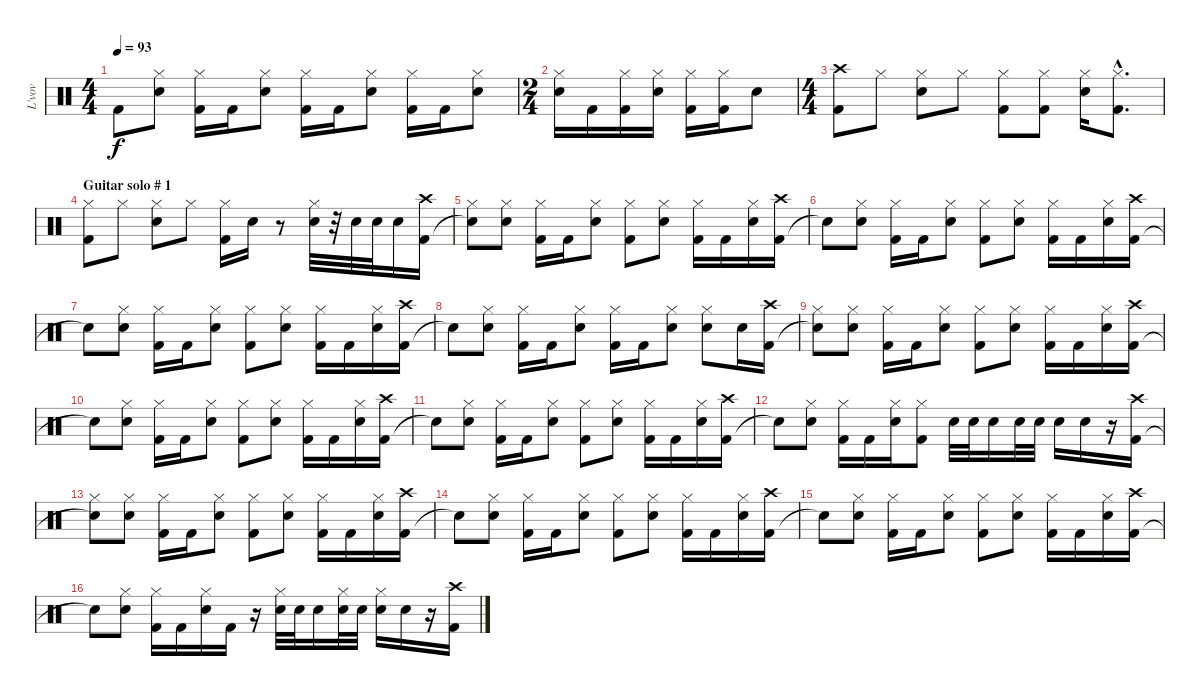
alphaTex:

\track ("L'vov" "L'vov") {instrument percussion}
\staff {score}
\articulation defaults
\ts (4 4)
\tempo 93
\clef neutral
\ks c "Kick (hit) 2".8{dy f}
("Snare (hit) 2" "Hi-Hat (closed)").8 ("Kick (hit) 2" "Hi-Hat (closed)").16 "Kick (hit) 2".16 ("Snare (hit) 2" "Hi-Hat (closed)").8 ("Kick (hit) 2" "Hi-Hat (closed)").16 "Kick (hit) 2".16 ("Snare (hit) 2" "Hi-Hat (closed)").8 ("Kick (hit) 2" "Hi-Hat (closed)").16 "Kick (hit) 2".16 ("Snare (hit) 2" "Hi-Hat (closed)").8 |
\ts (2 4)
("Snare (hit) 2" "Hi-Hat (closed)").16 "Kick (hit) 2".16 ("Kick (hit) 2" "Hi-Hat (closed)").16 ("Snare (hit) 2" "Hi-Hat (closed)").16 ("Kick (hit) 2" "Hi-Hat (closed)").16 ("Kick (hit) 2" "Hi-Hat (closed)").16 "Snare (hit) 2".8 |
\ts (4 4)
("Kick (hit) 2" "Crash high (hit)").8 "Hi-Hat (closed)".8 ("Snare (hit) 2" "Hi-Hat (closed)").8 "Hi-Hat (closed)".8 ("Kick (hit) 2" "Hi-Hat (closed)").8 ("Kick (hit) 2" "Hi-Hat (closed)").8 ("Snare (hit) 2" "Hi-Hat (closed)").16 ("Kick (hit) 2"{hac} "Hi-Hat (closed)"{hac}).8{d} |
\section ("" "Guitar solo # 1")
("Kick (hit) 2" "Hi-Hat (closed)").8 "Hi-Hat (closed)".8 ("Snare (hit) 2" "Hi-Hat (closed)").8 "Hi-Hat (closed)".8 ("Kick (hit) 2" "Hi-Hat (closed)").16 "Snare (hit) 2".16 r.8 ("Snare (hit) 2" "Hi-Hat (closed)").32 r.32 "Snare (hit) 2".32 "Snare (hit) 2".32 "Snare (hit) 2".16 ("Kick (hit) 2" "Crash high (hit)").16 |
("Snare (hit)"{t} "Hi-Hat (closed)").8 ("Snare (hit) 2" "Hi-Hat (closed)").8 ("Kick (hit) 2" "Hi-Hat (closed)").16 "Kick (hit) 2".16 ("Snare (hit) 2" "Hi-Hat (closed)").8 ("Kick (hit) 2" "Hi-Hat (closed)").8 ("Snare (hit) 2" "Hi-Hat (closed)").8 ("Kick (hit) 2" "Hi-Hat (closed)").16 "Kick (hit) 2".16 ("Snare (hit) 2" "Hi-Hat (closed)").16 ("Kick (hit) 2" "Crash high (hit)").16 |
"Snare (hit)"{t}.8 ("Snare (hit) 2" "Hi-Hat (closed)").8 ("Kick (hit) 2" "Hi-Hat (closed)").16 "Kick (hit) 2".16 ("Snare (hit) 2" "Hi-Hat (closed)").8 ("Kick (hit) 2" "Hi-Hat (closed)").8 ("Snare (hit) 2" "Hi-Hat (closed)").8 ("Kick (hit) 2" "Hi-Hat (closed)").16 "Kick (hit) 2".16 ("Snare (hit) 2" "Hi-Hat (closed)").16 ("Kick (hit) 2" "Crash high (hit)").16 |
"Snare (hit)"{t}.8 ("Snare (hit) 2" "Hi-Hat (closed)").8 ("Kick (hit) 2" "Hi-Hat (closed)").16 "Kick (hit) 2".16 ("Snare (hit) 2" "Hi-Hat (closed)").8 ("Kick (hit) 2" "Hi-Hat (closed)").8 ("Snare (hit) 2" "Hi-Hat (closed)").8 ("Kick (hit) 2" "Hi-Hat (closed)").16 "Kick (hit) 2".16 ("Snare (hit) 2" "Hi-Hat (closed)").16 ("Kick (hit) 2" "Crash high (hit)").16 |
"Snare (hit)"{t}.8 ("Snare (hit) 2" "Hi-Hat (closed)").8 ("Kick (hit) 2" "Hi-Hat (closed)").16 "Kick (hit) 2".16 ("Snare (hit) 2" "Hi-Hat (closed)").8 ("Kick (hit) 2" "Hi-Hat (closed)").16 "Kick (hit) 2".16 ("Snare (hit) 2" "Hi-Hat (closed)").8 ("Snare (hit) 2" "Hi-Hat (closed)").8 "Snare (hit) 2".16 ("Kick (hit) 2" "Crash high (hit)").16 |
("Snare (hit)"{t} "Hi-Hat (closed)").8 ("Snare (hit) 2" "Hi-Hat (closed)").8 ("Kick (hit) 2" "Hi-Hat (closed)").16 "Kick (hit) 2".16 ("Snare (hit) 2" "Hi-Hat (closed)").8 ("Kick (hit) 2" "Hi-Hat (closed)").8 ("Snare (hit) 2" "Hi-Hat (closed)").8 ("Kick (hit) 2" "Hi-Hat (closed)").16 "Kick (hit) 2".16 ("Snare (hit) 2" "Hi-Hat (closed)").16 ("Kick (hit) 2" "Crash high (hit)").16 |
"Snare (hit)"{t}.8 ("Snare (hit) 2" "Hi-Hat (closed)").8 ("Kick (hit) 2" "Hi-Hat (closed)").16 "Kick (hit) 2".16 ("Snare (hit) 2" "Hi-Hat (closed)").8 ("Kick (hit) 2" "Hi-Hat (closed)").8 ("Snare (hit) 2" "Hi-Hat (closed)").8 ("Kick (hit) 2" "Hi-Hat (closed)").16 "Kick (hit) 2".16 ("Snare (hit) 2" "Hi-Hat (closed)").16 ("Kick (hit) 2" "Crash high (hit)").16 |
"Snare (hit)"{t}.8 ("Snare (hit) 2" "Hi-Hat (closed)").8 ("Kick (hit) 2" "Hi-Hat (closed)").16 "Kick (hit) 2".16 ("Snare (hit) 2" "Hi-Hat (closed)").8 ("Kick (hit) 2" "Hi-Hat (closed)").8 ("Snare (hit) 2" "Hi-Hat (closed)").8 ("Kick (hit) 2" "Hi-Hat (closed)").16 "Kick (hit) 2".16 ("Snare (hit) 2" "Hi-Hat (closed)").16 ("Kick (hit) 2" "Crash high (hit)").16 |
"Snare (hit)"{t}.8 ("Snare (hit) 2" "Hi-Hat (closed)").8 ("Kick (hit) 2" "Hi-Hat (closed)").16 "Kick (hit) 2".16 ("Snare (hit) 2" "Hi-Hat (closed)").16 ("Kick (hit) 2" "Hi-Hat (closed)").8 "Snare (hit) 2".32 "Snare (hit) 2".32 "Snare (hit) 2".16 "Snare (hit) 2".32 "Snare (hit) 2".32 "Snare (hit) 2".16 "Snare (hit) 2".16 r.16 ("Kick (hit) 2" "Crash high (hit)").16 |
("Snare (hit)"{t} "Hi-Hat (closed)").8 ("Snare (hit) 2" "Hi-Hat (closed)").8 ("Kick (hit) 2" "Hi-Hat (closed)").16 "Kick (hit) 2".16 ("Snare (hit) 2" "Hi-Hat (closed)").8 ("Kick (hit) 2" "Hi-Hat (closed)").8 ("Snare (hit) 2" "Hi-Hat (closed)").8 ("Kick (hit) 2" "Hi-Hat (closed)").16 "Kick (hit) 2".16 ("Snare (hit) 2" "Hi-Hat (closed)").16 ("Kick (hit) 2" "Crash high (hit)").16 |
"Snare (hit)"{t}.8 ("Snare (hit) 2" "Hi-Hat (closed)").8 ("Kick (hit) 2" "Hi-Hat (closed)").16 "Kick (hit) 2".16 ("Snare (hit) 2" "Hi-Hat (closed)").8 ("Kick (hit) 2" "Hi-Hat (closed)").8 ("Snare (hit) 2" "Hi-Hat (closed)").8 ("Kick (hit) 2" "Hi-Hat (closed)").16 "Kick (hit) 2".16 ("Snare (hit) 2" "Hi-Hat (closed)").16 ("Kick (hit) 2" "Crash high (hit)").16 |
"Snare (hit)"{t}.8 ("Snare (hit) 2" "Hi-Hat (closed)").8 ("Kick (hit) 2" "Hi-Hat (closed)").16 "Kick (hit) 2".16 ("Snare (hit) 2" "Hi-Hat (closed)").8 ("Kick (hit) 2" "Hi-Hat (closed)").8 ("Snare (hit) 2" "Hi-Hat (closed)").8 ("Kick (hit) 2" "Hi-Hat (closed)").16 "Kick (hit) 2".16 ("Snare (hit) 2" "Hi-Hat (closed)").16 ("Kick (hit) 2" "Crash high (hit)").16 |
"Snare (hit)"{t}.8 ("Snare (hit) 2" "Hi-Hat (closed)").8 ("Kick (hit) 2" "Hi-Hat (closed)").16 "Kick (hit) 2".16 ("Snare (hit) 2" "Hi-Hat (closed)").16 "Kick (hit) 2".16 r.16 ("Snare (hit) 2" "Hi-Hat (closed)").32 "Snare (hit) 2".32 "Snare (hit) 2".16 ("Snare (hit) 2" "Hi-Hat (closed)").32 "Snare (hit) 2".32 ("Snare (hit) 2" "Hi-Hat (closed)").16 "Snare (hit) 2".16 r.16 ("Kick (hit) 2" "Crash high (hit)").16
